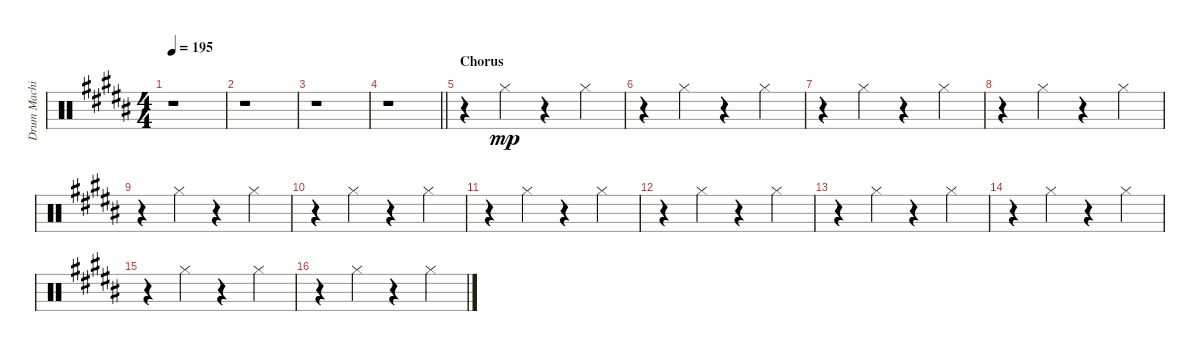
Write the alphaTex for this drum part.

\track ("Drum Machine" "Drum Machi") {instrument percussion}
\staff {score}
\articulation defaults
\ts (4 4)
\tempo 195
\clef neutral
\ks b
r.1{dy mp} |
r.1 |
r.1 |
\barLineRight lightlight
r.1 |
\section ("" "Chorus")
r.4 "Hi-Hat (closed)".4 r.4 "Hi-Hat (closed)".4 |
r.4 "Hi-Hat (closed)".4 r.4 "Hi-Hat (closed)".4 |
r.4 "Hi-Hat (closed)".4 r.4 "Hi-Hat (closed)".4 |
r.4 "Hi-Hat (closed)".4 r.4 "Hi-Hat (closed)".4 |
r.4 "Hi-Hat (closed)".4 r.4 "Hi-Hat (closed)".4 |
r.4 "Hi-Hat (closed)".4 r.4 "Hi-Hat (closed)".4 |
r.4 "Hi-Hat (closed)".4 r.4 "Hi-Hat (closed)".4 |
r.4 "Hi-Hat (closed)".4 r.4 "Hi-Hat (closed)".4 |
r.4 "Hi-Hat (closed)".4 r.4 "Hi-Hat (closed)".4 |
r.4 "Hi-Hat (closed)".4 r.4 "Hi-Hat (closed)".4 |
r.4 "Hi-Hat (closed)".4 r.4 "Hi-Hat (closed)".4 |
r.4 "Hi-Hat (closed)".4 r.4 "Hi-Hat (closed)".4
